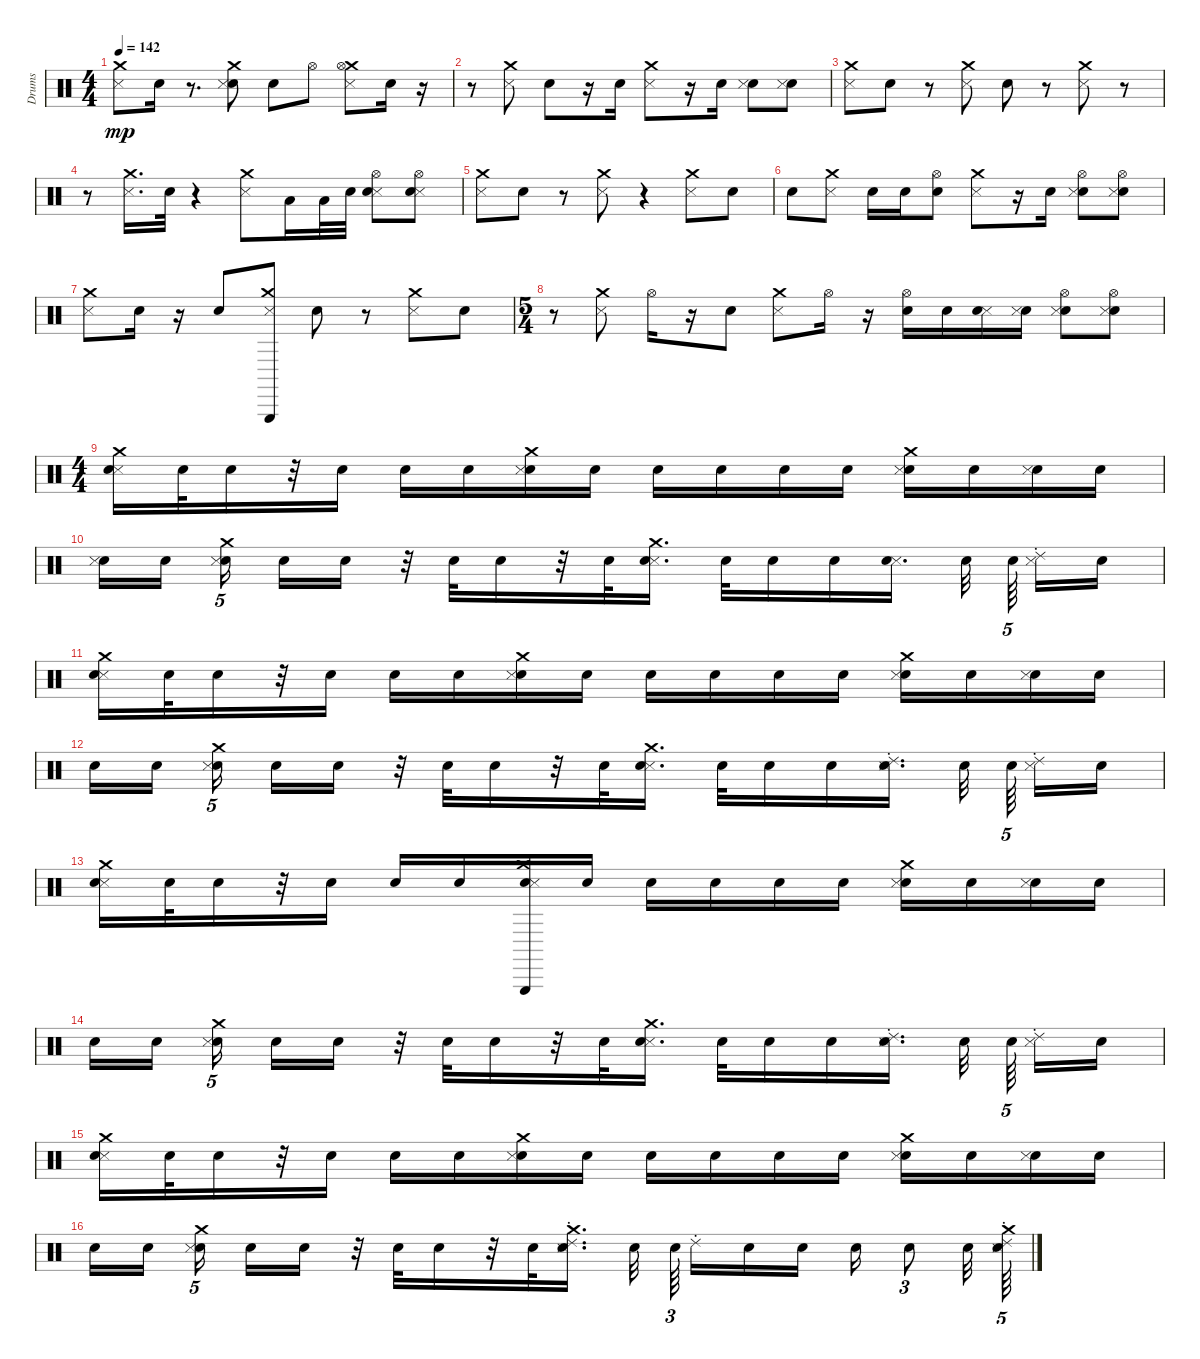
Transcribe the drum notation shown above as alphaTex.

\track ("Drums" "Drums") {instrument percussion}
\staff {score}
\articulation defaults
\ts (4 4)
\tempo 142
\clef neutral
\ks c
("Metronome (hit)" "Crash medium (hit)").8{dy mp} "Snare (hit) 2".16 r.8{d} ("Snare (hit) 2" "Metronome (hit)" "Crash medium (hit)").8 "Snare (hit) 2".8 "Hi-Hat (open)".8 ("Crash medium (hit)" "Metronome (hit)" "Hi-Hat (open)").8 "Snare (hit) 2".16 r.16 |
r.8 ("Metronome (hit)" "Crash medium (hit)").8 "Snare (hit) 2".8 r.16 "Snare (hit) 2".16 ("Metronome (hit)" "Crash medium (hit)").8 r.16 "Snare (hit) 2".16 ("Snare (hit) 2" "Metronome (hit)").8 ("Snare (hit) 2" "Metronome (hit)").8 |
("Metronome (hit)" "Crash medium (hit)").8 "Snare (hit) 2".8 r.8 ("Metronome (hit)" "Crash medium (hit)").8 "Snare (hit) 2".8 r.8 ("Metronome (hit)" "Crash medium (hit)").8 r.8 |
r.8 ("Metronome (hit)" "Crash medium (hit)").16{d} "Snare (hit) 2".32 r.4 ("Metronome (hit)" "Crash medium (hit)").8 "Low Tom (hit)".16 "Low Floor Tom (hit)".32 "Snare (hit) 2".32 ("Metronome (hit)" "Hi-Hat (open)" "Snare (hit) 2").8 ("Metronome (hit)" "Hi-Hat (open)" "Snare (hit) 2").8 |
("Metronome (hit)" "Crash medium (hit)").8 "Snare (hit) 2".8 r.8 ("Metronome (hit)" "Crash medium (hit)").8 r.4 ("Metronome (hit)" "Crash medium (hit)").8 "Snare (hit) 2".8 |
"Snare (hit) 2".8 ("Metronome (hit)" "Crash medium (hit)").8 "Snare (hit) 2".16 "Snare (hit) 2".16 ("Hi-Hat (open)" "Snare (hit) 2").8 ("Metronome (hit)" "Crash medium (hit)").8 r.16 "Snare (hit) 2".16 ("Hi-Hat (open)" "Snare (hit) 2" "Metronome (hit)").8 ("Hi-Hat (open)" "Snare (hit) 2" "Metronome (hit)").8 |
("Metronome (hit)" "Crash medium (hit)").8 "Snare (hit) 2".16 r.16 "Snare (hit) 2".8 ("Crash medium (hit)" "Metronome (hit)" "Triangle (hit)").8 "Snare (hit) 2".8 r.8 ("Metronome (hit)" "Crash medium (hit)").8 "Snare (hit) 2".8 |
\ts (5 4)
r.8 ("Metronome (hit)" "Crash medium (hit)").8 "Hi-Hat (open)".16 r.16 "Snare (hit) 2".8 ("Metronome (hit)" "Crash medium (hit)").8 "Hi-Hat (open)".16 r.16 ("Snare (hit) 2" "Hi-Hat (open)").16 "Snare (hit) 2".16 ("Metronome (hit)" "Snare (hit) 2").16 ("Snare (hit) 2" "Metronome (hit)").16 ("Snare (hit) 2" "Hi-Hat (open)" "Metronome (hit)").8 ("Snare (hit) 2" "Hi-Hat (open)" "Metronome (hit)").8 |
\ts (4 4)
("Metronome (hit)" "Crash medium (hit)" "Snare (hit) 2").16 "Snare (hit) 2".32 "Snare (hit) 2".16 r.32 "Snare (hit) 2".16 "Snare (hit) 2".16 "Snare (hit) 2".16 ("Snare (hit) 2" "Metronome (hit)" "Crash medium (hit)").16 "Snare (hit) 2".16 "Snare (hit) 2".16 "Snare (hit) 2".16 "Snare (hit) 2".16 "Snare (hit) 2".16 ("Snare (hit) 2" "Metronome (hit)" "Crash medium (hit)").16 "Snare (hit) 2".16 ("Snare (hit) 2" "Metronome (hit)").16 "Snare (hit) 2".16 |
("Snare (hit) 2" "Metronome (hit)").16 "Snare (hit) 2".16 ("Snare (hit) 2" "Metronome (hit)" "Crash medium (hit)").16{tu (5 4)} "Snare (hit) 2".16 "Snare (hit) 2".16 r.32 "Snare (hit) 2".32 "Snare (hit) 2".16 r.32 "Snare (hit) 2".32 ("Metronome (hit)" "Crash medium (hit)" "Snare (hit) 2").16{d} "Snare (hit) 2".32 "Snare (hit) 2".16 "Snare (hit) 2".16 ("Metronome (hit)" "Snare (hit) 2").16{d} "Snare (hit) 2".32 "Snare (hit) 2".64{tu (5 4)} ("Metronome (hit)" "Ride (choke) 2").16 "Snare (hit) 2".16 |
("Metronome (hit)" "Crash medium (hit)" "Snare (hit) 2").16 "Snare (hit) 2".32 "Snare (hit) 2".16 r.32 "Snare (hit) 2".16 "Snare (hit) 2".16 "Snare (hit) 2".16 ("Snare (hit) 2" "Metronome (hit)" "Crash medium (hit)").16 "Snare (hit) 2".16 "Snare (hit) 2".16 "Snare (hit) 2".16 "Snare (hit) 2".16 "Snare (hit) 2".16 ("Snare (hit) 2" "Metronome (hit)" "Crash medium (hit)").16 "Snare (hit) 2".16 ("Snare (hit) 2" "Metronome (hit)").16 "Snare (hit) 2".16 |
"Snare (hit) 2".16 "Snare (hit) 2".16 ("Snare (hit) 2" "Metronome (hit)" "Crash medium (hit)").16{tu (5 4)} "Snare (hit) 2".16 "Snare (hit) 2".16 r.32 "Snare (hit) 2".32 "Snare (hit) 2".16 r.32 "Snare (hit) 2".32 ("Metronome (hit)" "Crash medium (hit)" "Snare (hit) 2").16{d} "Snare (hit) 2".32 "Snare (hit) 2".16 "Snare (hit) 2".16 ("Metronome (hit)" "Ride (choke) 2" "Snare (hit) 2").16{d} "Snare (hit) 2".32 "Snare (hit) 2".64{tu (5 4)} ("Metronome (hit)" "Ride (choke) 2").16 "Snare (hit) 2".16 |
("Metronome (hit)" "Crash medium (hit)" "Snare (hit) 2").16 "Snare (hit) 2".32 "Snare (hit) 2".16 r.32 "Snare (hit) 2".16 "Snare (hit) 2".16 "Snare (hit) 2".16 ("Snare (hit) 2" "Triangle (hit)" "Metronome (hit)" "Crash medium (hit)").16 "Snare (hit) 2".16 "Snare (hit) 2".16 "Snare (hit) 2".16 "Snare (hit) 2".16 "Snare (hit) 2".16 ("Snare (hit) 2" "Metronome (hit)" "Crash medium (hit)").16 "Snare (hit) 2".16 ("Snare (hit) 2" "Metronome (hit)").16 "Snare (hit) 2".16 |
"Snare (hit) 2".16 "Snare (hit) 2".16 ("Snare (hit) 2" "Metronome (hit)" "Crash medium (hit)").16{tu (5 4)} "Snare (hit) 2".16 "Snare (hit) 2".16 r.32 "Snare (hit) 2".32 "Snare (hit) 2".16 r.32 "Snare (hit) 2".32 ("Metronome (hit)" "Crash medium (hit)" "Snare (hit) 2").16{d} "Snare (hit) 2".32 "Snare (hit) 2".16 "Snare (hit) 2".16 ("Ride (choke) 2" "Metronome (hit)" "Snare (hit) 2").16{d} "Snare (hit) 2".32 "Snare (hit) 2".64{tu (5 4)} ("Ride (choke) 2" "Metronome (hit)").16 "Snare (hit) 2".16 |
("Metronome (hit)" "Crash medium (hit)" "Snare (hit) 2").16 "Snare (hit) 2".32 "Snare (hit) 2".16 r.32 "Snare (hit) 2".16 "Snare (hit) 2".16 "Snare (hit) 2".16 ("Snare (hit) 2" "Metronome (hit)" "Crash medium (hit)").16 "Snare (hit) 2".16 "Snare (hit) 2".16 "Snare (hit) 2".16 "Snare (hit) 2".16 "Snare (hit) 2".16 ("Snare (hit) 2" "Metronome (hit)" "Crash medium (hit)").16 "Snare (hit) 2".16 ("Snare (hit) 2" "Metronome (hit)").16 "Snare (hit) 2".16 |
"Snare (hit) 2".16 "Snare (hit) 2".16 ("Snare (hit) 2" "Metronome (hit)" "Crash medium (hit)").16{tu (5 4)} "Snare (hit) 2".16 "Snare (hit) 2".16 r.32 "Snare (hit) 2".32 "Snare (hit) 2".16 r.32 "Snare (hit) 2".32 ("Ride (choke) 2" "Metronome (hit)" "Crash medium (hit)" "Snare (hit) 2").16{d} "Snare (hit) 2".32 "Snare (hit) 2".64{tu (3 2)} "Ride (choke) 2".16 "Snare (hit) 2".16 "Snare (hit) 2".16 "Snare (hit) 2".16 "Snare (hit) 2".8{tu (3 2)} "Snare (hit) 2".32 ("Crash medium (hit)" "Ride (choke) 2" "Metronome (hit)" "Snare (hit) 2").64{tu (5 4)}
